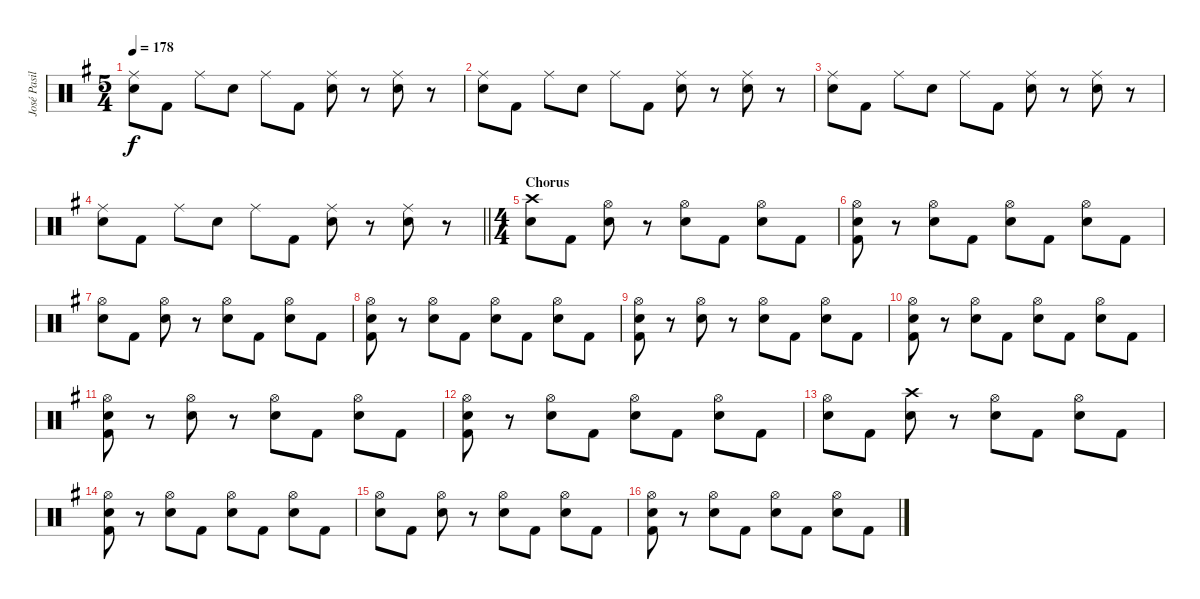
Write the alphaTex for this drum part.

\track ("José Pasillas [Drums]" "José Pasil") {instrument percussion}
\staff {score}
\articulation defaults
\ts (5 4)
\tempo 178
\clef neutral
\ks g
("Electric Snare (hit)" "Ride (middle)").8{dy f} "Kick (hit) 2".8 "Ride (middle)".8 "Electric Snare (hit)".8 "Ride (middle)".8 "Kick (hit) 2".8 ("Electric Snare (hit)" "Ride (middle)").8 r.8 ("Electric Snare (hit)" "Ride (middle)").8 r.8 |
("Electric Snare (hit)" "Ride (middle)").8 "Kick (hit) 2".8 "Ride (middle)".8 "Electric Snare (hit)".8 "Ride (middle)".8 "Kick (hit) 2".8 ("Electric Snare (hit)" "Ride (middle)").8 r.8 ("Electric Snare (hit)" "Ride (middle)").8 r.8 |
("Electric Snare (hit)" "Ride (middle)").8 "Kick (hit) 2".8 "Ride (middle)".8 "Electric Snare (hit)".8 "Ride (middle)".8 "Kick (hit) 2".8 ("Electric Snare (hit)" "Ride (middle)").8 r.8 ("Electric Snare (hit)" "Ride (middle)").8 r.8 |
\barLineRight lightlight
("Electric Snare (hit)" "Ride (middle)").8 "Kick (hit) 2".8 "Ride (middle)".8 "Electric Snare (hit)".8 "Ride (middle)".8 "Kick (hit) 2".8 ("Electric Snare (hit)" "Ride (middle)").8 r.8 ("Electric Snare (hit)" "Ride (middle)").8 r.8 |
\ts (4 4)
\section ("" "Chorus")
("Electric Snare (hit)" "Crash high (hit)").8 "Kick (hit) 2".8 ("Electric Snare (hit)" "Hi-Hat (open)").8 r.8 ("Electric Snare (hit)" "Hi-Hat (open)").8 "Kick (hit) 2".8 ("Electric Snare (hit)" "Hi-Hat (open)").8 "Kick (hit) 2".8 |
("Kick (hit) 2" "Electric Snare (hit)" "Hi-Hat (open)").8 r.8 ("Electric Snare (hit)" "Hi-Hat (open)").8 "Kick (hit) 2".8 ("Electric Snare (hit)" "Hi-Hat (open)").8 "Kick (hit) 2".8 ("Electric Snare (hit)" "Hi-Hat (open)").8 "Kick (hit) 2".8 |
("Electric Snare (hit)" "Hi-Hat (open)").8 "Kick (hit) 2".8 ("Electric Snare (hit)" "Hi-Hat (open)").8 r.8 ("Electric Snare (hit)" "Hi-Hat (open)").8 "Kick (hit) 2".8 ("Electric Snare (hit)" "Hi-Hat (open)").8 "Kick (hit) 2".8 |
("Kick (hit) 2" "Electric Snare (hit)" "Hi-Hat (open)").8 r.8 ("Electric Snare (hit)" "Hi-Hat (open)").8 "Kick (hit) 2".8 ("Electric Snare (hit)" "Hi-Hat (open)").8 "Kick (hit) 2".8 ("Electric Snare (hit)" "Hi-Hat (open)").8 "Kick (hit) 2".8 |
("Kick (hit) 2" "Electric Snare (hit)" "Hi-Hat (open)").8 r.8 ("Electric Snare (hit)" "Hi-Hat (open)").8 r.8 ("Electric Snare (hit)" "Hi-Hat (open)").8 "Kick (hit) 2".8 ("Electric Snare (hit)" "Hi-Hat (open)").8 "Kick (hit) 2".8 |
("Kick (hit) 2" "Electric Snare (hit)" "Hi-Hat (open)").8 r.8 ("Electric Snare (hit)" "Hi-Hat (open)").8 "Kick (hit) 2".8 ("Electric Snare (hit)" "Hi-Hat (open)").8 "Kick (hit) 2".8 ("Electric Snare (hit)" "Hi-Hat (open)").8 "Kick (hit) 2".8 |
("Kick (hit) 2" "Electric Snare (hit)" "Hi-Hat (open)").8 r.8 ("Electric Snare (hit)" "Hi-Hat (open)").8 r.8 ("Electric Snare (hit)" "Hi-Hat (open)").8 "Kick (hit) 2".8 ("Electric Snare (hit)" "Hi-Hat (open)").8 "Kick (hit) 2".8 |
("Kick (hit) 2" "Electric Snare (hit)" "Hi-Hat (open)").8 r.8 ("Electric Snare (hit)" "Hi-Hat (open)").8 "Kick (hit) 2".8 ("Electric Snare (hit)" "Hi-Hat (open)").8 "Kick (hit) 2".8 ("Electric Snare (hit)" "Hi-Hat (open)").8 "Kick (hit) 2".8 |
("Electric Snare (hit)" "Hi-Hat (open)").8 "Kick (hit) 2".8 ("Electric Snare (hit)" "Crash high (hit)").8 r.8 ("Electric Snare (hit)" "Hi-Hat (open)").8 "Kick (hit) 2".8 ("Electric Snare (hit)" "Hi-Hat (open)").8 "Kick (hit) 2".8 |
("Kick (hit) 2" "Electric Snare (hit)" "Hi-Hat (open)").8 r.8 ("Electric Snare (hit)" "Hi-Hat (open)").8 "Kick (hit) 2".8 ("Electric Snare (hit)" "Hi-Hat (open)").8 "Kick (hit) 2".8 ("Electric Snare (hit)" "Hi-Hat (open)").8 "Kick (hit) 2".8 |
("Electric Snare (hit)" "Hi-Hat (open)").8 "Kick (hit) 2".8 ("Electric Snare (hit)" "Hi-Hat (open)").8 r.8 ("Electric Snare (hit)" "Hi-Hat (open)").8 "Kick (hit) 2".8 ("Electric Snare (hit)" "Hi-Hat (open)").8 "Kick (hit) 2".8 |
("Kick (hit) 2" "Electric Snare (hit)" "Hi-Hat (open)").8 r.8 ("Electric Snare (hit)" "Hi-Hat (open)").8 "Kick (hit) 2".8 ("Electric Snare (hit)" "Hi-Hat (open)").8 "Kick (hit) 2".8 ("Electric Snare (hit)" "Hi-Hat (open)").8 "Kick (hit) 2".8
